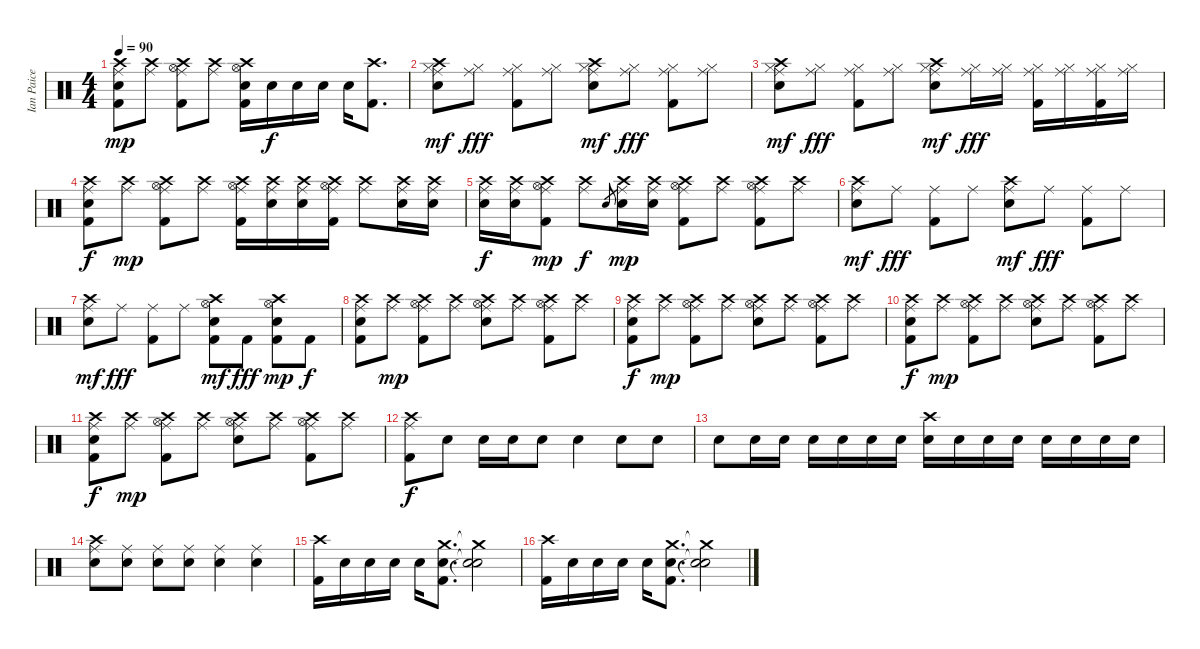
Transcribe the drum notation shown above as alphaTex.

\track ("Ian Paice (Percusion)" "Ian Paice ") {instrument percussion}
\staff {score}
\articulation defaults
\ts (4 4)
\tempo 90
\clef neutral
\ks c
("Kick (hit) 2" "Crash high (hit)" "Ride (middle)" "Electric Snare (hit)").8{dy mp} ("Crash high (hit)" "Ride (middle)").8 ("Hi-Hat (open)" "Crash high (hit)" "Ride (middle)" "Kick (hit) 2").8 ("Crash high (hit)" "Ride (middle)").8 ("Crash high (hit)" "Hi-Hat (open)" "Kick (hit) 2" "Electric Snare (hit)").16 "Electric Snare (hit)".16{dy f} "Electric Snare (hit)".16 "Electric Snare (hit)".16 "Electric Snare (hit)".16 ("Crash high (hit)" "Kick (hit) 2").8{d} |
("Electric Snare (hit)" "Ride (middle)" "Hi-Hat (closed)" "Crash high (hit)").8{dy mf} ("Ride (middle)" "Hi-Hat (closed)").8{dy fff} ("Ride (middle)" "Hi-Hat (closed)" "Kick (hit) 2").8 ("Ride (middle)" "Hi-Hat (closed)").8 ("Electric Snare (hit)" "Ride (middle)" "Hi-Hat (closed)" "Crash high (hit)").8{dy mf} ("Ride (middle)" "Hi-Hat (closed)").8{dy fff} ("Ride (middle)" "Hi-Hat (closed)" "Kick (hit) 2").8 ("Ride (middle)" "Hi-Hat (closed)").8 |
("Electric Snare (hit)" "Ride (middle)" "Hi-Hat (closed)" "Crash high (hit)").8{dy mf} ("Ride (middle)" "Hi-Hat (closed)").8{dy fff} ("Ride (middle)" "Hi-Hat (closed)" "Kick (hit) 2").8 ("Ride (middle)" "Hi-Hat (closed)").8 ("Electric Snare (hit)" "Ride (middle)" "Hi-Hat (closed)" "Crash high (hit)").8{dy mf} ("Ride (middle)" "Hi-Hat (closed)").16{dy fff} ("Ride (middle)" "Hi-Hat (closed)").16 ("Ride (middle)" "Hi-Hat (closed)" "Kick (hit) 2").16 ("Ride (middle)" "Hi-Hat (closed)").16 ("Ride (middle)" "Hi-Hat (closed)" "Kick (hit) 2").16 ("Ride (middle)" "Hi-Hat (closed)").16 |
("Kick (hit) 2" "Crash high (hit)" "Ride (middle)" "Electric Snare (hit)").8{dy f} ("Crash high (hit)" "Ride (middle)").8{dy mp} ("Hi-Hat (open)" "Crash high (hit)" "Ride (middle)" "Kick (hit) 2").8 ("Crash high (hit)" "Ride (middle)").8 ("Hi-Hat (open)" "Crash high (hit)" "Ride (middle)" "Kick (hit) 2").16 ("Crash high (hit)" "Ride (middle)" "Electric Snare (hit)").16 ("Crash high (hit)" "Ride (middle)" "Electric Snare (hit)").16 ("Hi-Hat (open)" "Crash high (hit)" "Ride (middle)" "Kick (hit) 2").16 ("Crash high (hit)" "Ride (middle)").8 ("Crash high (hit)" "Ride (middle)" "Electric Snare (hit)").16 ("Crash high (hit)" "Ride (middle)" "Electric Snare (hit)").16 |
("Crash high (hit)" "Ride (middle)" "Electric Snare (hit)").16{dy f} ("Crash high (hit)" "Ride (middle)" "Electric Snare (hit)").16 ("Hi-Hat (open)" "Crash high (hit)" "Ride (middle)" "Kick (hit) 2").8{dy mp} ("Crash high (hit)" "Ride (middle)").8{dy f} "Electric Snare (hit)".8{gr} ("Crash high (hit)" "Ride (middle)" "Electric Snare (hit)").16{dy mp} ("Crash high (hit)" "Ride (middle)" "Electric Snare (hit)").16 ("Hi-Hat (open)" "Crash high (hit)" "Ride (middle)" "Kick (hit) 2").8 ("Crash high (hit)" "Ride (middle)").8 ("Hi-Hat (open)" "Crash high (hit)" "Ride (middle)" "Kick (hit) 2").8 ("Crash high (hit)" "Ride (middle)").8 |
("Electric Snare (hit)" "Ride (middle)" "Crash high (hit)").8{dy mf} "Ride (middle)".8{dy fff} ("Ride (middle)" "Kick (hit) 2").8 "Ride (middle)".8 ("Electric Snare (hit)" "Ride (middle)" "Crash high (hit)").8{dy mf} "Ride (middle)".8{dy fff} ("Ride (middle)" "Kick (hit) 2").8 "Ride (middle)".8 |
("Electric Snare (hit)" "Ride (middle)" "Crash high (hit)").8{dy mf} "Ride (middle)".8{dy fff} ("Ride (middle)" "Kick (hit) 2").8 "Ride (middle)".8 ("Electric Snare (hit)" "Hi-Hat (open)" "Kick (hit) 2" "Crash high (hit)").8{dy mf} "Kick (hit) 2".8{dy fff} ("Electric Snare (hit)" "Hi-Hat (open)" "Kick (hit) 2" "Crash high (hit)").8{dy mp} "Kick (hit) 2".8{dy f} |
("Kick (hit) 2" "Crash high (hit)" "Ride (middle)" "Electric Snare (hit)").8 ("Crash high (hit)" "Ride (middle)").8{dy mp} ("Hi-Hat (open)" "Crash high (hit)" "Ride (middle)" "Kick (hit) 2").8 ("Crash high (hit)" "Ride (middle)").8 ("Hi-Hat (open)" "Crash high (hit)" "Ride (middle)" "Electric Snare (hit)").8 ("Crash high (hit)" "Ride (middle)").8 ("Hi-Hat (open)" "Crash high (hit)" "Ride (middle)" "Kick (hit) 2").8 ("Crash high (hit)" "Ride (middle)").8 |
("Kick (hit) 2" "Crash high (hit)" "Ride (middle)" "Electric Snare (hit)").8{dy f} ("Crash high (hit)" "Ride (middle)").8{dy mp} ("Hi-Hat (open)" "Crash high (hit)" "Ride (middle)" "Kick (hit) 2").8 ("Crash high (hit)" "Ride (middle)").8 ("Hi-Hat (open)" "Crash high (hit)" "Ride (middle)" "Electric Snare (hit)").8 ("Crash high (hit)" "Ride (middle)").8 ("Hi-Hat (open)" "Crash high (hit)" "Ride (middle)" "Kick (hit) 2").8 ("Crash high (hit)" "Ride (middle)").8 |
("Kick (hit) 2" "Crash high (hit)" "Ride (middle)" "Electric Snare (hit)").8{dy f} ("Crash high (hit)" "Ride (middle)").8{dy mp} ("Hi-Hat (open)" "Crash high (hit)" "Ride (middle)" "Kick (hit) 2").8 ("Crash high (hit)" "Ride (middle)").8 ("Hi-Hat (open)" "Crash high (hit)" "Ride (middle)" "Electric Snare (hit)").8 ("Crash high (hit)" "Ride (middle)").8 ("Hi-Hat (open)" "Crash high (hit)" "Ride (middle)" "Kick (hit) 2").8 ("Crash high (hit)" "Ride (middle)").8 |
("Kick (hit) 2" "Crash high (hit)" "Ride (middle)" "Electric Snare (hit)").8{dy f} ("Crash high (hit)" "Ride (middle)").8{dy mp} ("Hi-Hat (open)" "Crash high (hit)" "Ride (middle)" "Kick (hit) 2").8 ("Crash high (hit)" "Ride (middle)").8 ("Hi-Hat (open)" "Crash high (hit)" "Ride (middle)" "Electric Snare (hit)").8 ("Crash high (hit)" "Ride (middle)").8 ("Hi-Hat (open)" "Crash high (hit)" "Ride (middle)" "Kick (hit) 2").8 ("Crash high (hit)" "Ride (middle)").8 |
("Crash high (hit)" "Ride (middle)" "Kick (hit) 2").8{dy f} "Electric Snare (hit)".8 "Electric Snare (hit)".16 "Electric Snare (hit)".16 "Electric Snare (hit)".8 "Electric Snare (hit)".4 "Electric Snare (hit)".8 "Electric Snare (hit)".8 |
"Electric Snare (hit)".8 "Electric Snare (hit)".16 "Electric Snare (hit)".16 "Electric Snare (hit)".16 "Electric Snare (hit)".16 "Electric Snare (hit)".16 "Electric Snare (hit)".16 ("Crash high (hit)" "Electric Snare (hit)").16 "Electric Snare (hit)".16 "Electric Snare (hit)".16 "Electric Snare (hit)".16 "Electric Snare (hit)".16 "Electric Snare (hit)".16 "Electric Snare (hit)".16 "Electric Snare (hit)".16 |
("Crash high (hit)" "Electric Snare (hit)" "Ride (middle)").8 ("Electric Snare (hit)" "Ride (middle)").8 ("Electric Snare (hit)" "Ride (middle)").8 ("Electric Snare (hit)" "Ride (middle)").8 ("Electric Snare (hit)" "Ride (middle)").4 ("Electric Snare (hit)" "Ride (middle)").4 |
("Crash high (hit)" "Kick (hit) 2").16 "Electric Snare (hit)".16 "Electric Snare (hit)".16 "Electric Snare (hit)".16 "Electric Snare (hit)".16 ("Crash medium (hit)" "Electric Snare (hit)" "Kick (hit) 2").8{d} ("Crash medium (hit)"{t} "Snare (hit)"{t} "Snare (hit)"{t}).2 |
("Crash high (hit)" "Kick (hit) 2").16 "Electric Snare (hit)".16 "Electric Snare (hit)".16 "Electric Snare (hit)".16 "Electric Snare (hit)".16 ("Crash medium (hit)" "Electric Snare (hit)" "Kick (hit) 2").8{d} ("Crash medium (hit)"{t} "Snare (hit)"{t} "Snare (hit)"{t}).2
